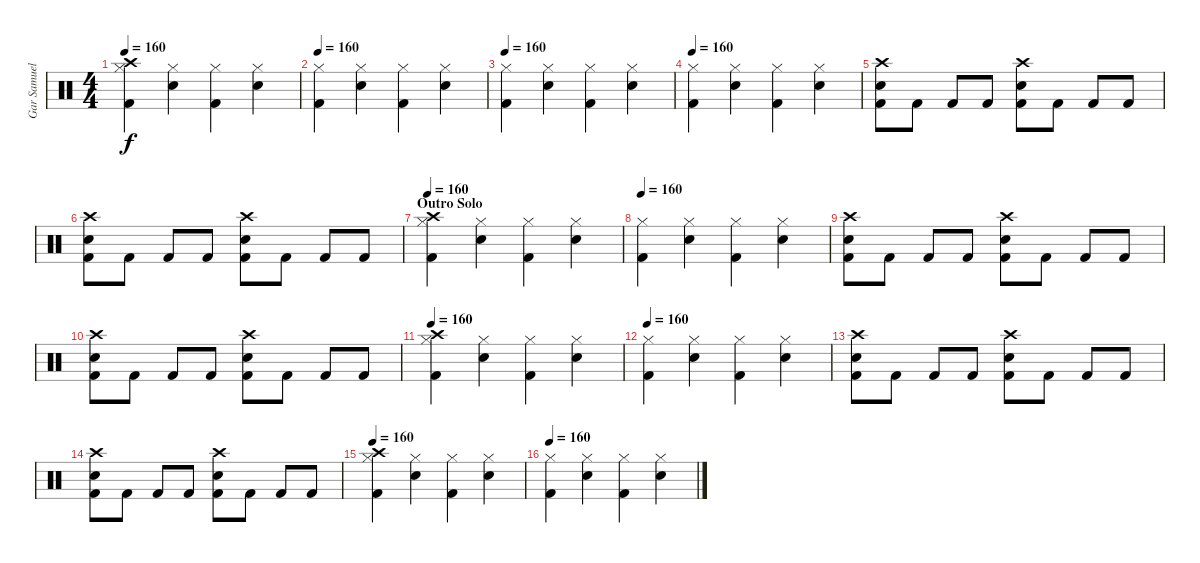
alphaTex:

\track ("Gar Samuelson (Drums)" "Gar Samuel") {instrument percussion}
\staff {score}
\articulation defaults
\ts (4 4)
\tempo 160
\clef neutral
\ks c
("Crash high (hit)" "Hi-Hat (closed)" "Kick (hit) 2").4{dy f} ("Electric Snare (hit)" "Hi-Hat (closed)").4 ("Hi-Hat (closed)" "Kick (hit) 2").4 ("Electric Snare (hit)" "Hi-Hat (closed)").4 |
\tempo 160
("Hi-Hat (closed)" "Kick (hit) 2").4 ("Electric Snare (hit)" "Hi-Hat (closed)").4 ("Hi-Hat (closed)" "Kick (hit) 2").4 ("Electric Snare (hit)" "Hi-Hat (closed)").4 |
\tempo 160
("Hi-Hat (closed)" "Kick (hit) 2").4 ("Electric Snare (hit)" "Hi-Hat (closed)").4 ("Hi-Hat (closed)" "Kick (hit) 2").4 ("Electric Snare (hit)" "Hi-Hat (closed)").4 |
\tempo 160
("Hi-Hat (closed)" "Kick (hit) 2").4 ("Electric Snare (hit)" "Hi-Hat (closed)").4 ("Hi-Hat (closed)" "Kick (hit) 2").4 ("Electric Snare (hit)" "Hi-Hat (closed)").4 |
("Electric Snare (hit)" "Crash high (hit)" "Kick (hit) 2").8 "Kick (hit) 2".8 "Kick (hit) 2".8 "Kick (hit) 2".8 ("Electric Snare (hit)" "Crash high (hit)" "Kick (hit) 2").8 "Kick (hit) 2".8 "Kick (hit) 2".8 "Kick (hit) 2".8 |
("Electric Snare (hit)" "Crash high (hit)" "Kick (hit) 2").8 "Kick (hit) 2".8 "Kick (hit) 2".8 "Kick (hit) 2".8 ("Electric Snare (hit)" "Crash high (hit)" "Kick (hit) 2").8 "Kick (hit) 2".8 "Kick (hit) 2".8 "Kick (hit) 2".8 |
\section ("" "Outro Solo")
\tempo 160
("Crash high (hit)" "Hi-Hat (closed)" "Kick (hit) 2").4 ("Electric Snare (hit)" "Hi-Hat (closed)").4 ("Hi-Hat (closed)" "Kick (hit) 2").4 ("Electric Snare (hit)" "Hi-Hat (closed)").4 |
\tempo 160
("Hi-Hat (closed)" "Kick (hit) 2").4 ("Electric Snare (hit)" "Hi-Hat (closed)").4 ("Hi-Hat (closed)" "Kick (hit) 2").4 ("Electric Snare (hit)" "Hi-Hat (closed)").4 |
("Electric Snare (hit)" "Crash high (hit)" "Kick (hit) 2").8 "Kick (hit) 2".8 "Kick (hit) 2".8 "Kick (hit) 2".8 ("Electric Snare (hit)" "Crash high (hit)" "Kick (hit) 2").8 "Kick (hit) 2".8 "Kick (hit) 2".8 "Kick (hit) 2".8 |
("Electric Snare (hit)" "Crash high (hit)" "Kick (hit) 2").8 "Kick (hit) 2".8 "Kick (hit) 2".8 "Kick (hit) 2".8 ("Electric Snare (hit)" "Crash high (hit)" "Kick (hit) 2").8 "Kick (hit) 2".8 "Kick (hit) 2".8 "Kick (hit) 2".8 |
\tempo 160
("Crash high (hit)" "Hi-Hat (closed)" "Kick (hit) 2").4 ("Electric Snare (hit)" "Hi-Hat (closed)").4 ("Hi-Hat (closed)" "Kick (hit) 2").4 ("Electric Snare (hit)" "Hi-Hat (closed)").4 |
\tempo 160
("Hi-Hat (closed)" "Kick (hit) 2").4 ("Electric Snare (hit)" "Hi-Hat (closed)").4 ("Hi-Hat (closed)" "Kick (hit) 2").4 ("Electric Snare (hit)" "Hi-Hat (closed)").4 |
("Electric Snare (hit)" "Crash high (hit)" "Kick (hit) 2").8 "Kick (hit) 2".8 "Kick (hit) 2".8 "Kick (hit) 2".8 ("Electric Snare (hit)" "Crash high (hit)" "Kick (hit) 2").8 "Kick (hit) 2".8 "Kick (hit) 2".8 "Kick (hit) 2".8 |
("Electric Snare (hit)" "Crash high (hit)" "Kick (hit) 2").8 "Kick (hit) 2".8 "Kick (hit) 2".8 "Kick (hit) 2".8 ("Electric Snare (hit)" "Crash high (hit)" "Kick (hit) 2").8 "Kick (hit) 2".8 "Kick (hit) 2".8 "Kick (hit) 2".8 |
\tempo 160
("Crash high (hit)" "Hi-Hat (closed)" "Kick (hit) 2").4 ("Electric Snare (hit)" "Hi-Hat (closed)").4 ("Hi-Hat (closed)" "Kick (hit) 2").4 ("Electric Snare (hit)" "Hi-Hat (closed)").4 |
\tempo 160
("Hi-Hat (closed)" "Kick (hit) 2").4 ("Electric Snare (hit)" "Hi-Hat (closed)").4 ("Hi-Hat (closed)" "Kick (hit) 2").4 ("Electric Snare (hit)" "Hi-Hat (closed)").4
